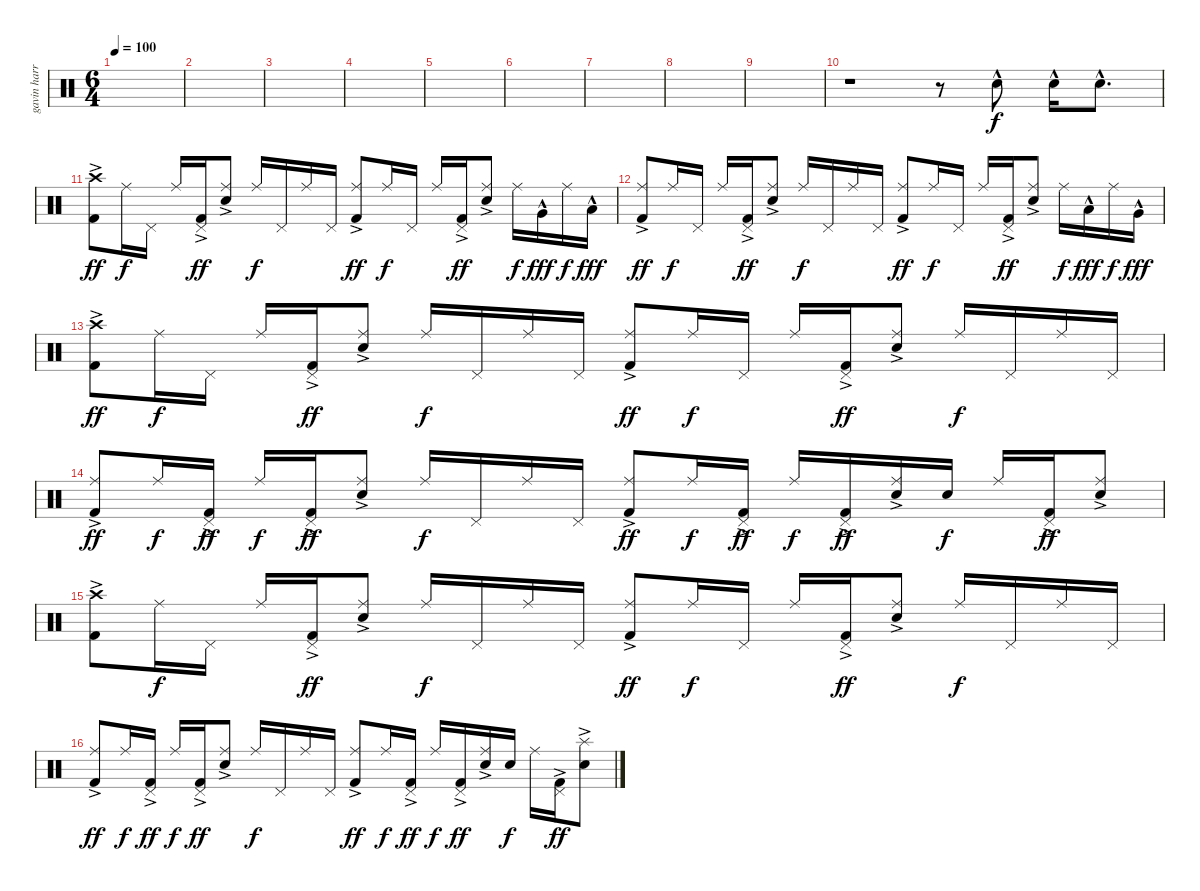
\track ("gavin harrison" "gavin harr") {instrument percussion}
\staff {score}
\articulation defaults
\ts (6 4)
\tempo 100
\clef neutral
\ks c
|
|
|
|
|
|
|
|
|
r.1 r.8 "Electric Snare (hit)"{hac}.8 "Electric Snare (hit)"{hac}.16 "Electric Snare (hit)"{hac}.8{d} |
("Crash high (hit)" "Kick (hit) 2"{ac}).8{dy ff} "Ride (middle)".16{dy f} "Pedal Hi-Hat (hit)".16 "Ride (middle)".16 ("Pedal Hi-Hat (hit)" "Kick (hit) 2"{ac}).16{dy ff} ("Ride (middle)" "Electric Snare (hit)"{ac}).8 "Ride (middle)".16{dy f} "Pedal Hi-Hat (hit)".16 "Ride (middle)".16 "Pedal Hi-Hat (hit)".16 ("Ride (middle)" "Kick (hit) 2"{ac}).8{dy ff} "Ride (middle)".16{dy f} "Pedal Hi-Hat (hit)".16 "Ride (middle)".16 ("Pedal Hi-Hat (hit)" "Kick (hit) 2"{ac}).16{dy ff} ("Ride (middle)" "Electric Snare (hit)"{ac}).8 "Ride (middle)".16{dy f} "Very Low Tom (hit)"{hac}.16{dy fff} "Ride (middle)".16{dy f} "Low Floor Tom (hit)"{hac}.16{dy fff} |
("Ride (middle)" "Kick (hit) 2"{ac}).8{dy ff} "Ride (middle)".16{dy f} "Pedal Hi-Hat (hit)".16 "Ride (middle)".16 ("Pedal Hi-Hat (hit)" "Kick (hit) 2"{ac}).16{dy ff} ("Ride (middle)" "Electric Snare (hit)"{ac}).8 "Ride (middle)".16{dy f} "Pedal Hi-Hat (hit)".16 "Ride (middle)".16 "Pedal Hi-Hat (hit)".16 ("Ride (middle)" "Kick (hit) 2"{ac}).8{dy ff} "Ride (middle)".16{dy f} "Pedal Hi-Hat (hit)".16 "Ride (middle)".16 ("Pedal Hi-Hat (hit)" "Kick (hit) 2"{ac}).16{dy ff} ("Ride (middle)" "Electric Snare (hit)"{ac}).8 "Ride (middle)".16{dy f} "Low Tom (hit)"{hac}.16{dy fff} "Ride (middle)".16{dy f} "Very Low Tom (hit)"{hac}.16{dy fff} |
("Crash high (hit)" "Kick (hit) 2"{ac}).8{dy ff} "Ride (middle)".16{dy f} "Pedal Hi-Hat (hit)".16 "Ride (middle)".16 ("Pedal Hi-Hat (hit)" "Kick (hit) 2"{ac}).16{dy ff} ("Ride (middle)" "Electric Snare (hit)"{ac}).8 "Ride (middle)".16{dy f} "Pedal Hi-Hat (hit)".16 "Ride (middle)".16 "Pedal Hi-Hat (hit)".16 ("Ride (middle)" "Kick (hit) 2"{ac}).8{dy ff} "Ride (middle)".16{dy f} "Pedal Hi-Hat (hit)".16 "Ride (middle)".16 ("Pedal Hi-Hat (hit)" "Kick (hit) 2"{ac}).16{dy ff} ("Ride (middle)" "Electric Snare (hit)"{ac}).8 "Ride (middle)".16{dy f} "Pedal Hi-Hat (hit)".16 "Ride (middle)".16 "Pedal Hi-Hat (hit)".16 |
("Ride (middle)" "Kick (hit) 2"{ac}).8{dy ff} "Ride (middle)".16{dy f} ("Pedal Hi-Hat (hit)" "Kick (hit) 2"{ac}).16{dy ff} "Ride (middle)".16{dy f} ("Pedal Hi-Hat (hit)" "Kick (hit) 2"{ac}).16{dy ff} ("Ride (middle)" "Electric Snare (hit)"{ac}).8 "Ride (middle)".16{dy f} "Pedal Hi-Hat (hit)".16 "Ride (middle)".16 "Pedal Hi-Hat (hit)".16 ("Ride (middle)" "Kick (hit) 2"{ac}).8{dy ff} "Ride (middle)".16{dy f} ("Pedal Hi-Hat (hit)" "Kick (hit) 2"{ac}).16{dy ff} "Ride (middle)".16{dy f} ("Pedal Hi-Hat (hit)" "Kick (hit) 2"{ac}).16{dy ff} ("Ride (middle)" "Electric Snare (hit)"{ac}).16 "Electric Snare (hit)".16{dy f} "Ride (middle)".16 ("Pedal Hi-Hat (hit)" "Kick (hit) 2"{ac}).16{dy ff} ("Ride (middle)" "Electric Snare (hit)"{ac}).8 |
("Crash high (hit)" "Kick (hit) 2"{ac}).8 "Ride (middle)".16{dy f} "Pedal Hi-Hat (hit)".16 "Ride (middle)".16 ("Pedal Hi-Hat (hit)" "Kick (hit) 2"{ac}).16{dy ff} ("Ride (middle)" "Electric Snare (hit)"{ac}).8 "Ride (middle)".16{dy f} "Pedal Hi-Hat (hit)".16 "Ride (middle)".16 "Pedal Hi-Hat (hit)".16 ("Ride (middle)" "Kick (hit) 2"{ac}).8{dy ff} "Ride (middle)".16{dy f} "Pedal Hi-Hat (hit)".16 "Ride (middle)".16 ("Pedal Hi-Hat (hit)" "Kick (hit) 2"{ac}).16{dy ff} ("Ride (middle)" "Electric Snare (hit)"{ac}).8 "Ride (middle)".16{dy f} "Pedal Hi-Hat (hit)".16 "Ride (middle)".16 "Pedal Hi-Hat (hit)".16 |
("Ride (middle)" "Kick (hit) 2"{ac}).8{dy ff} "Ride (middle)".16{dy f} ("Pedal Hi-Hat (hit)" "Kick (hit) 2"{ac}).16{dy ff} "Ride (middle)".16{dy f} ("Pedal Hi-Hat (hit)" "Kick (hit) 2"{ac}).16{dy ff} ("Ride (middle)" "Electric Snare (hit)"{ac}).8 "Ride (middle)".16{dy f} "Pedal Hi-Hat (hit)".16 "Ride (middle)".16 "Pedal Hi-Hat (hit)".16 ("Ride (middle)" "Kick (hit) 2"{ac}).8{dy ff} "Ride (middle)".16{dy f} ("Pedal Hi-Hat (hit)" "Kick (hit) 2"{ac}).16{dy ff} "Ride (middle)".16{dy f} ("Pedal Hi-Hat (hit)" "Kick (hit) 2"{ac}).16{dy ff} ("Ride (middle)" "Electric Snare (hit)"{ac}).16 "Electric Snare (hit)".16{dy f} "Ride (middle)".16 ("Pedal Hi-Hat (hit)" "Kick (hit) 2"{ac}).16{dy ff} ("Splash (hit)" "Electric Snare (hit)"{ac}).8
